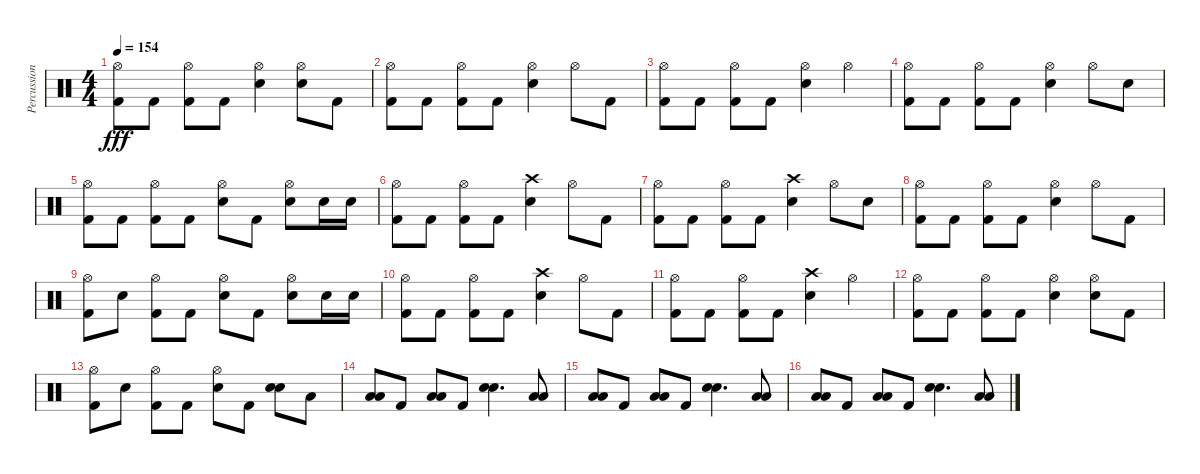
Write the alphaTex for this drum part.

\track ("Percussion" "Percussion") {instrument percussion}
\staff {score}
\articulation defaults
\ts (4 4)
\tempo 154
\clef neutral
\ks c
("Hi-Hat (open)" "Kick (hit) 2").8{dy fff} "Kick (hit) 2".8 ("Hi-Hat (open)" "Kick (hit) 2").8 "Kick (hit) 2".8 ("Hi-Hat (open)" "Electric Snare (hit)").4 ("Hi-Hat (open)" "Electric Snare (hit)").8 "Kick (hit) 2".8 |
("Hi-Hat (open)" "Kick (hit) 2").8 "Kick (hit) 2".8 ("Hi-Hat (open)" "Kick (hit) 2").8 "Kick (hit) 2".8 ("Hi-Hat (open)" "Electric Snare (hit)").4 "Hi-Hat (open)".8 "Kick (hit) 2".8 |
("Hi-Hat (open)" "Kick (hit) 2").8 "Kick (hit) 2".8 ("Hi-Hat (open)" "Kick (hit) 2").8 "Kick (hit) 2".8 ("Hi-Hat (open)" "Electric Snare (hit)").4 "Hi-Hat (open)".4 |
("Hi-Hat (open)" "Kick (hit) 2").8 "Kick (hit) 2".8 ("Hi-Hat (open)" "Kick (hit) 2").8 "Kick (hit) 2".8 ("Hi-Hat (open)" "Electric Snare (hit)").4 "Hi-Hat (open)".8 "Electric Snare (hit)".8 |
("Hi-Hat (open)" "Kick (hit) 2").8 "Kick (hit) 2".8 ("Hi-Hat (open)" "Kick (hit) 2").8 "Kick (hit) 2".8 ("Hi-Hat (open)" "Electric Snare (hit)").8 "Kick (hit) 2".8 ("Hi-Hat (open)" "Electric Snare (hit)").8 "Electric Snare (hit)".16 "Electric Snare (hit)".16 |
("Hi-Hat (open)" "Kick (hit) 2").8 "Kick (hit) 2".8 ("Hi-Hat (open)" "Kick (hit) 2").8 "Kick (hit) 2".8 ("Crash high (hit)" "Electric Snare (hit)").4 "Hi-Hat (open)".8 "Kick (hit) 2".8 |
("Hi-Hat (open)" "Kick (hit) 2").8 "Kick (hit) 2".8 ("Hi-Hat (open)" "Kick (hit) 2").8 "Kick (hit) 2".8 ("Crash high (hit)" "Electric Snare (hit)").4 "Hi-Hat (open)".8 "Electric Snare (hit)".8 |
("Hi-Hat (open)" "Kick (hit) 2").8 "Kick (hit) 2".8 ("Hi-Hat (open)" "Kick (hit) 2").8 "Kick (hit) 2".8 ("Hi-Hat (open)" "Electric Snare (hit)").4 "Hi-Hat (open)".8 "Kick (hit) 2".8 |
("Hi-Hat (open)" "Kick (hit) 2").8 "Electric Snare (hit)".8 ("Hi-Hat (open)" "Kick (hit) 2").8 "Kick (hit) 2".8 ("Hi-Hat (open)" "Electric Snare (hit)").8 "Kick (hit) 2".8 ("Hi-Hat (open)" "Electric Snare (hit)").8 "Electric Snare (hit)".16 "Electric Snare (hit)".16 |
("Hi-Hat (open)" "Kick (hit) 2").8 "Kick (hit) 2".8 ("Hi-Hat (open)" "Kick (hit) 2").8 "Kick (hit) 2".8 ("Crash high (hit)" "Electric Snare (hit)").4 "Hi-Hat (open)".8 "Kick (hit) 2".8 |
("Hi-Hat (open)" "Kick (hit) 2").8 "Kick (hit) 2".8 ("Hi-Hat (open)" "Kick (hit) 2").8 "Kick (hit) 2".8 ("Crash high (hit)" "Electric Snare (hit)").4 "Hi-Hat (open)".4 |
("Hi-Hat (open)" "Kick (hit) 2").8 "Kick (hit) 2".8 ("Hi-Hat (open)" "Kick (hit) 2").8 "Kick (hit) 2".8 ("Hi-Hat (open)" "Electric Snare (hit)").4 ("Hi-Hat (open)" "Electric Snare (hit)").8 "Kick (hit) 2".8 |
("Hi-Hat (open)" "Kick (hit) 2").8 "Electric Snare (hit)".8 ("Hi-Hat (open)" "Kick (hit) 2").8 "Kick (hit) 2".8 ("Hi-Hat (open)" "Electric Snare (hit)").8 "Kick (hit) 2".8 ("Electric Snare (hit)" "Electric Snare (hit)").8{bd 240} "Low Floor Tom (hit)".8 |
("Low Floor Tom (hit)" "Low Floor Tom (hit)").8{bd 240} "Kick (hit) 2".8 ("Low Floor Tom (hit)" "Low Floor Tom (hit)").8{bd 240} "Kick (hit) 2".8 ("Electric Snare (hit)" "Electric Snare (hit)").4{d bd 240} ("Low Floor Tom (hit)" "Low Floor Tom (hit)").8{bd 240} |
("Low Floor Tom (hit)" "Low Floor Tom (hit)").8{bd 240} "Kick (hit) 2".8 ("Low Floor Tom (hit)" "Low Floor Tom (hit)").8{bd 240} "Kick (hit) 2".8 ("Electric Snare (hit)" "Electric Snare (hit)").4{d bd 240} ("Low Floor Tom (hit)" "Low Floor Tom (hit)").8{bd 240} |
("Low Floor Tom (hit)" "Low Floor Tom (hit)").8{bd 240} "Kick (hit) 2".8 ("Low Floor Tom (hit)" "Low Floor Tom (hit)").8{bd 240} "Kick (hit) 2".8 ("Electric Snare (hit)" "Electric Snare (hit)").4{d bd 240} ("Low Floor Tom (hit)" "Low Floor Tom (hit)").8{bd 240}
